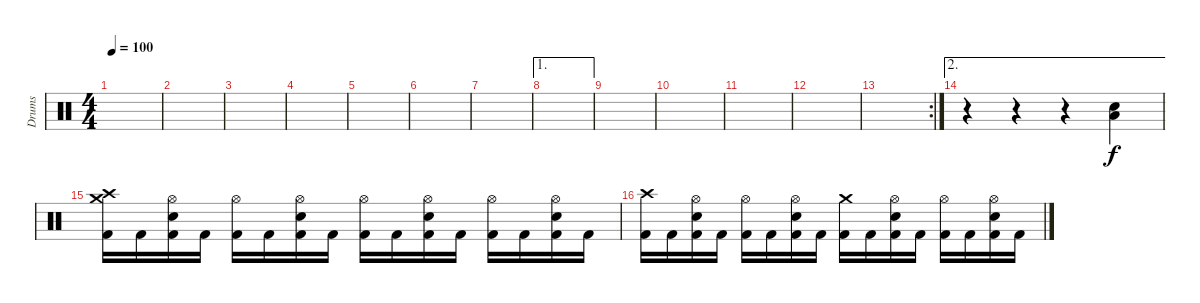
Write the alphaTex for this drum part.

\track ("Drums" "Drums") {instrument percussion}
\staff {score}
\articulation defaults
\ts (4 4)
\tempo 100
\clef neutral
\ks c
|
|
|
|
|
|
|
\ae 1
|
|
|
|
|
\rc 2
|
\ae 2
r.4 r.4 r.4 ("Snare (hit) 2" "Low Floor Tom (hit)").4 |
("Crash high (hit)" "Crash medium (hit)" "Kick (hit) 2").16 "Kick (hit) 2".16 ("Snare (hit) 2" "Hi-Hat (open)" "Kick (hit) 2").16 "Kick (hit) 2".16 ("Hi-Hat (open)" "Kick (hit) 2").16 "Kick (hit) 2".16 ("Hi-Hat (open)" "Snare (hit) 2" "Kick (hit) 2").16 "Kick (hit) 2".16 ("Hi-Hat (open)" "Kick (hit) 2").16 "Kick (hit) 2".16 ("Hi-Hat (open)" "Snare (hit) 2" "Kick (hit) 2").16 "Kick (hit) 2".16 ("Hi-Hat (open)" "Kick (hit) 2").16 "Kick (hit) 2".16 ("Hi-Hat (open)" "Snare (hit) 2" "Kick (hit) 2").16 "Kick (hit) 2".16 |
("Crash high (hit)" "Kick (hit) 2").16 "Kick (hit) 2".16 ("Snare (hit) 2" "Hi-Hat (open)" "Kick (hit) 2").16 "Kick (hit) 2".16 ("Hi-Hat (open)" "Kick (hit) 2").16 "Kick (hit) 2".16 ("Hi-Hat (open)" "Snare (hit) 2" "Kick (hit) 2").16 "Kick (hit) 2".16 ("Crash medium (hit)" "Kick (hit) 2").16 "Kick (hit) 2".16 ("Hi-Hat (open)" "Snare (hit) 2" "Kick (hit) 2").16 "Kick (hit) 2".16 ("Hi-Hat (open)" "Kick (hit) 2").16 "Kick (hit) 2".16 ("Hi-Hat (open)" "Snare (hit) 2" "Kick (hit) 2").16 "Kick (hit) 2".16
